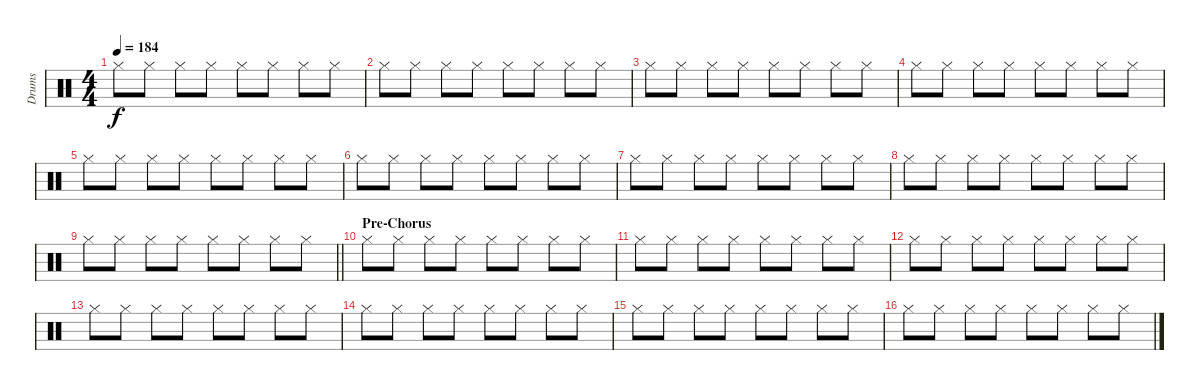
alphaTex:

\track ("Drums" "Drums") {instrument percussion}
\staff {score}
\articulation defaults
\ts (4 4)
\tempo 184
\clef neutral
\ks c "Hi-Hat (closed)".8{dy f} "Hi-Hat (closed)".8 "Hi-Hat (closed)".8 "Hi-Hat (closed)".8 "Hi-Hat (closed)".8 "Hi-Hat (closed)".8 "Hi-Hat (closed)".8 "Hi-Hat (closed)".8
|
"Hi-Hat (closed)".8 "Hi-Hat (closed)".8 "Hi-Hat (closed)".8 "Hi-Hat (closed)".8 "Hi-Hat (closed)".8 "Hi-Hat (closed)".8 "Hi-Hat (closed)".8 "Hi-Hat (closed)".8 |
"Hi-Hat (closed)".8 "Hi-Hat (closed)".8 "Hi-Hat (closed)".8 "Hi-Hat (closed)".8 "Hi-Hat (closed)".8 "Hi-Hat (closed)".8 "Hi-Hat (closed)".8 "Hi-Hat (closed)".8 |
"Hi-Hat (closed)".8 "Hi-Hat (closed)".8 "Hi-Hat (closed)".8 "Hi-Hat (closed)".8 "Hi-Hat (closed)".8 "Hi-Hat (closed)".8 "Hi-Hat (closed)".8 "Hi-Hat (closed)".8 |
"Hi-Hat (closed)".8 "Hi-Hat (closed)".8 "Hi-Hat (closed)".8 "Hi-Hat (closed)".8 "Hi-Hat (closed)".8 "Hi-Hat (closed)".8 "Hi-Hat (closed)".8 "Hi-Hat (closed)".8 |
"Hi-Hat (closed)".8 "Hi-Hat (closed)".8 "Hi-Hat (closed)".8 "Hi-Hat (closed)".8 "Hi-Hat (closed)".8 "Hi-Hat (closed)".8 "Hi-Hat (closed)".8 "Hi-Hat (closed)".8 |
"Hi-Hat (closed)".8 "Hi-Hat (closed)".8 "Hi-Hat (closed)".8 "Hi-Hat (closed)".8 "Hi-Hat (closed)".8 "Hi-Hat (closed)".8 "Hi-Hat (closed)".8 "Hi-Hat (closed)".8 |
"Hi-Hat (closed)".8 "Hi-Hat (closed)".8 "Hi-Hat (closed)".8 "Hi-Hat (closed)".8 "Hi-Hat (closed)".8 "Hi-Hat (closed)".8 "Hi-Hat (closed)".8 "Hi-Hat (closed)".8 |
\barLineRight lightlight "Hi-Hat (closed)".8 "Hi-Hat (closed)".8 "Hi-Hat (closed)".8 "Hi-Hat (closed)".8 "Hi-Hat (closed)".8 "Hi-Hat (closed)".8 "Hi-Hat (closed)".8 "Hi-Hat (closed)".8
|
\section ("" "Pre-Chorus")
"Hi-Hat (closed)".8 "Hi-Hat (closed)".8 "Hi-Hat (closed)".8 "Hi-Hat (closed)".8 "Hi-Hat (closed)".8 "Hi-Hat (closed)".8 "Hi-Hat (closed)".8 "Hi-Hat (closed)".8 |
"Hi-Hat (closed)".8 "Hi-Hat (closed)".8 "Hi-Hat (closed)".8 "Hi-Hat (closed)".8 "Hi-Hat (closed)".8 "Hi-Hat (closed)".8 "Hi-Hat (closed)".8 "Hi-Hat (closed)".8 |
"Hi-Hat (closed)".8 "Hi-Hat (closed)".8 "Hi-Hat (closed)".8 "Hi-Hat (closed)".8 "Hi-Hat (closed)".8 "Hi-Hat (closed)".8 "Hi-Hat (closed)".8 "Hi-Hat (closed)".8 |
"Hi-Hat (closed)".8 "Hi-Hat (closed)".8 "Hi-Hat (closed)".8 "Hi-Hat (closed)".8 "Hi-Hat (closed)".8 "Hi-Hat (closed)".8 "Hi-Hat (closed)".8 "Hi-Hat (closed)".8 |
"Hi-Hat (closed)".8 "Hi-Hat (closed)".8 "Hi-Hat (closed)".8 "Hi-Hat (closed)".8 "Hi-Hat (closed)".8 "Hi-Hat (closed)".8 "Hi-Hat (closed)".8 "Hi-Hat (closed)".8 |
"Hi-Hat (closed)".8 "Hi-Hat (closed)".8 "Hi-Hat (closed)".8 "Hi-Hat (closed)".8 "Hi-Hat (closed)".8 "Hi-Hat (closed)".8 "Hi-Hat (closed)".8 "Hi-Hat (closed)".8 |
"Hi-Hat (closed)".8 "Hi-Hat (closed)".8 "Hi-Hat (closed)".8 "Hi-Hat (closed)".8 "Hi-Hat (closed)".8 "Hi-Hat (closed)".8 "Hi-Hat (closed)".8 "Hi-Hat (closed)".8
